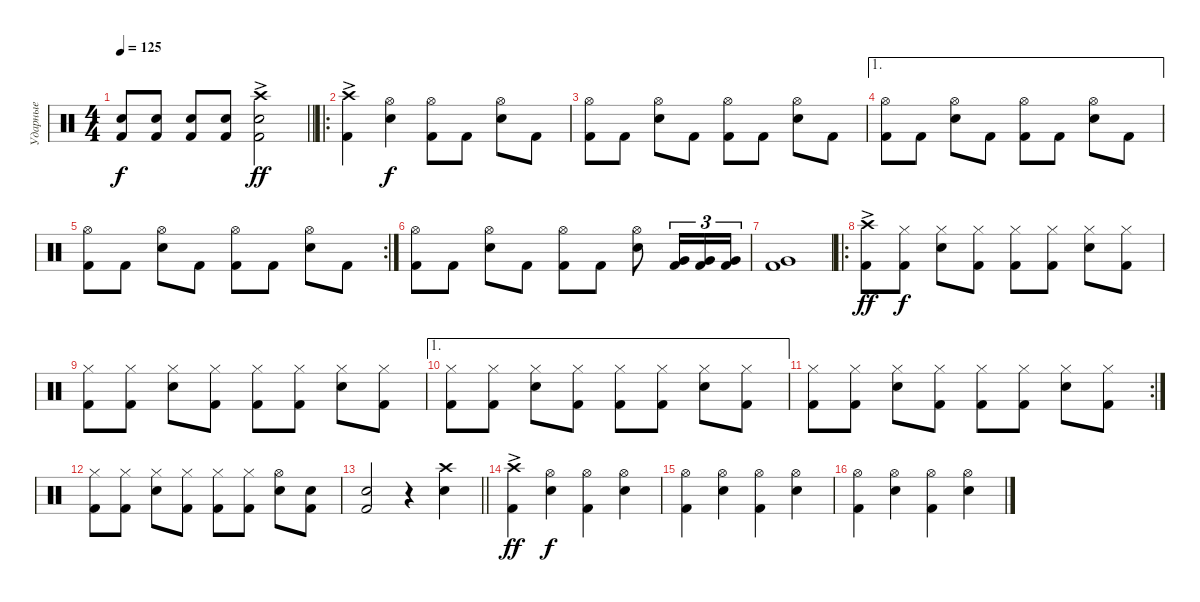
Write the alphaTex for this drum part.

\track ("Ударные" "Ударные") {instrument percussion}
\staff
\articulation defaults
\ts (4 4)
\tempo 125
\clef neutral
\barLineRight lightlight
\ks c
("Kick (hit) 2" "Snare (hit) 2").8{dy f} ("Kick (hit) 2" "Snare (hit) 2").8 ("Kick (hit) 2" "Snare (hit) 2").8 ("Kick (hit) 2" "Snare (hit) 2").8 ("Kick (hit) 2" "Snare (hit) 2" "Crash high (hit)"{ac}).2{dy ff} |
\ro
("Kick (hit) 2" "Crash high (hit)"{ac}).4 ("Snare (hit) 2" "Hi-Hat (open)").4{dy f} ("Kick (hit) 2" "Hi-Hat (open)").8 "Kick (hit) 2".8 ("Snare (hit) 2" "Hi-Hat (open)").8 "Kick (hit) 2".8 |
("Kick (hit) 2" "Hi-Hat (open)").8 "Kick (hit) 2".8 ("Snare (hit) 2" "Hi-Hat (open)").8 "Kick (hit) 2".8 ("Kick (hit) 2" "Hi-Hat (open)").8 "Kick (hit) 2".8 ("Snare (hit) 2" "Hi-Hat (open)").8 "Kick (hit) 2".8 |
\ae 1
("Kick (hit) 2" "Hi-Hat (open)").8 "Kick (hit) 2".8 ("Snare (hit) 2" "Hi-Hat (open)").8 "Kick (hit) 2".8 ("Kick (hit) 2" "Hi-Hat (open)").8 "Kick (hit) 2".8 ("Snare (hit) 2" "Hi-Hat (open)").8 "Kick (hit) 2".8 |
\rc 2
("Kick (hit) 2" "Hi-Hat (open)").8 "Kick (hit) 2".8 ("Snare (hit) 2" "Hi-Hat (open)").8 "Kick (hit) 2".8 ("Kick (hit) 2" "Hi-Hat (open)").8 "Kick (hit) 2".8 ("Snare (hit) 2" "Hi-Hat (open)").8 "Kick (hit) 2".8 |
("Kick (hit) 2" "Hi-Hat (open)").8 "Kick (hit) 2".8 ("Snare (hit) 2" "Hi-Hat (open)").8 "Kick (hit) 2".8 ("Kick (hit) 2" "Hi-Hat (open)").8 "Kick (hit) 2".8 ("Snare (hit) 2" "Hi-Hat (open)").8 ("Kick (hit) 2" "Very Low Tom (hit)").16{tu (3 2)} ("Kick (hit) 2" "Very Low Tom (hit)").16{tu (3 2)} ("Kick (hit) 2" "Very Low Tom (hit)").16{tu (3 2)} |
("Kick (hit) 2" "Very Low Tom (hit)").1 |
\ro
("Kick (hit) 2" "Crash high (hit)"{ac}).8{dy ff} ("Kick (hit) 2" "Hi-Hat (closed)").8{dy f} ("Snare (hit) 2" "Hi-Hat (closed)").8 ("Kick (hit) 2" "Hi-Hat (closed)").8 ("Kick (hit) 2" "Hi-Hat (closed)").8 ("Kick (hit) 2" "Hi-Hat (closed)").8 ("Snare (hit) 2" "Hi-Hat (closed)").8 ("Kick (hit) 2" "Hi-Hat (closed)").8 |
("Kick (hit) 2" "Hi-Hat (closed)").8 ("Kick (hit) 2" "Hi-Hat (closed)").8 ("Snare (hit) 2" "Hi-Hat (closed)").8 ("Kick (hit) 2" "Hi-Hat (closed)").8 ("Kick (hit) 2" "Hi-Hat (closed)").8 ("Kick (hit) 2" "Hi-Hat (closed)").8 ("Snare (hit) 2" "Hi-Hat (closed)").8 ("Kick (hit) 2" "Hi-Hat (closed)").8 |
\ae 1
("Kick (hit) 2" "Hi-Hat (closed)").8 ("Kick (hit) 2" "Hi-Hat (closed)").8 ("Snare (hit) 2" "Hi-Hat (closed)").8 ("Kick (hit) 2" "Hi-Hat (closed)").8 ("Kick (hit) 2" "Hi-Hat (closed)").8 ("Kick (hit) 2" "Hi-Hat (closed)").8 ("Snare (hit) 2" "Hi-Hat (closed)").8 ("Kick (hit) 2" "Hi-Hat (closed)").8 |
\rc 2
("Kick (hit) 2" "Hi-Hat (closed)").8 ("Kick (hit) 2" "Hi-Hat (closed)").8 ("Snare (hit) 2" "Hi-Hat (closed)").8 ("Kick (hit) 2" "Hi-Hat (closed)").8 ("Kick (hit) 2" "Hi-Hat (closed)").8 ("Kick (hit) 2" "Hi-Hat (closed)").8 ("Snare (hit) 2" "Hi-Hat (closed)").8 ("Kick (hit) 2" "Hi-Hat (closed)").8 |
("Kick (hit) 2" "Hi-Hat (closed)").8 ("Kick (hit) 2" "Hi-Hat (closed)").8 ("Snare (hit) 2" "Hi-Hat (closed)").8 ("Kick (hit) 2" "Hi-Hat (closed)").8 ("Kick (hit) 2" "Hi-Hat (closed)").8 ("Kick (hit) 2" "Hi-Hat (closed)").8 ("Snare (hit) 2" "Hi-Hat (open)").8 ("Kick (hit) 2" "Electric Snare (hit)").8 |
\barLineRight lightlight
("Kick (hit) 2" "Electric Snare (hit)").2 r.4 ("Snare (hit) 2" "Crash high (hit)").4 |
("Kick (hit) 2" "Crash high (hit)"{ac}).4{dy ff} ("Snare (hit) 2" "Hi-Hat (open)").4{dy f} ("Kick (hit) 2" "Hi-Hat (open)").4 ("Snare (hit) 2" "Hi-Hat (open)").4 |
("Kick (hit) 2" "Hi-Hat (open)").4 ("Snare (hit) 2" "Hi-Hat (open)").4 ("Kick (hit) 2" "Hi-Hat (open)").4 ("Snare (hit) 2" "Hi-Hat (open)").4 |
("Kick (hit) 2" "Hi-Hat (open)").4 ("Snare (hit) 2" "Hi-Hat (open)").4 ("Kick (hit) 2" "Hi-Hat (open)").4 ("Snare (hit) 2" "Hi-Hat (open)").4
